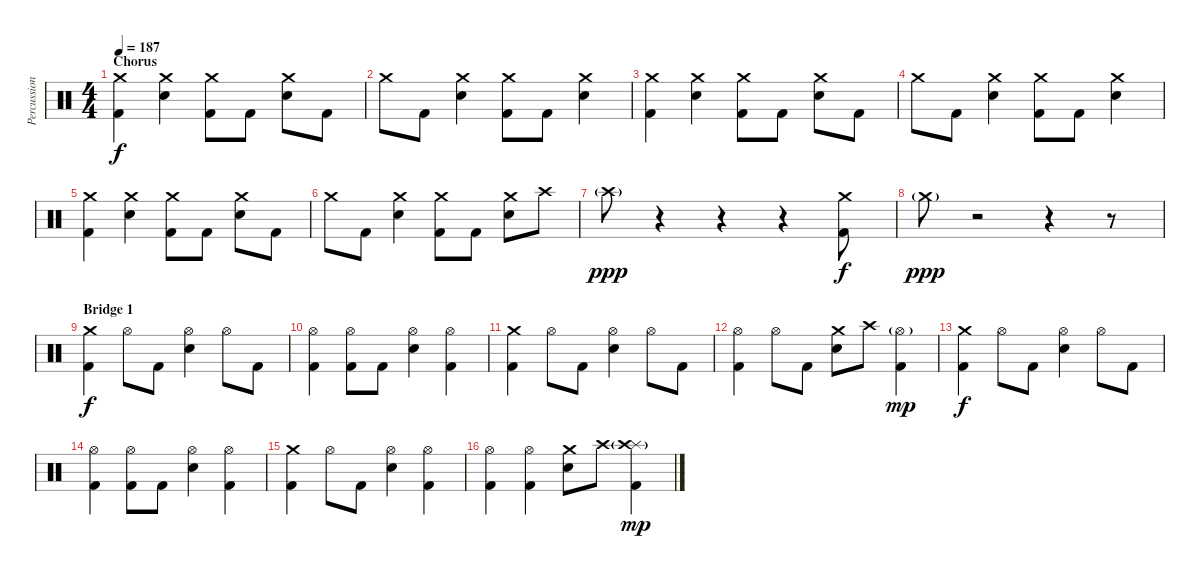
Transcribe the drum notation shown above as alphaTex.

\track ("Percussion" "Percussion") {instrument percussion}
\staff {score}
\articulation defaults
\ts (4 4)
\section ("" "Chorus")
\tempo 187
\clef neutral
\ks c
("Crash medium (hit)" "Kick (hit) 2").4{dy f} ("Crash medium (hit)" "Electric Snare (hit)").4 ("Crash medium (hit)" "Kick (hit) 2").8 "Kick (hit) 2".8 ("Crash medium (hit)" "Electric Snare (hit)").8 "Kick (hit) 2".8 |
"Crash medium (hit)".8 "Kick (hit) 2".8 ("Crash medium (hit)" "Electric Snare (hit)").4 ("Crash medium (hit)" "Kick (hit) 2").8 "Kick (hit) 2".8 ("Crash medium (hit)" "Electric Snare (hit)").4 |
("Crash medium (hit)" "Kick (hit) 2").4 ("Crash medium (hit)" "Electric Snare (hit)").4 ("Crash medium (hit)" "Kick (hit) 2").8 "Kick (hit) 2".8 ("Crash medium (hit)" "Electric Snare (hit)").8 "Kick (hit) 2".8 |
"Crash medium (hit)".8 "Kick (hit) 2".8 ("Crash medium (hit)" "Electric Snare (hit)").4 ("Crash medium (hit)" "Kick (hit) 2").8 "Kick (hit) 2".8 ("Crash medium (hit)" "Electric Snare (hit)").4 |
("Crash medium (hit)" "Kick (hit) 2").4 ("Crash medium (hit)" "Electric Snare (hit)").4 ("Crash medium (hit)" "Kick (hit) 2").8 "Kick (hit) 2".8 ("Crash medium (hit)" "Electric Snare (hit)").8 "Kick (hit) 2".8 |
"Crash medium (hit)".8 "Kick (hit) 2".8 ("Crash medium (hit)" "Electric Snare (hit)").4 ("Crash medium (hit)" "Kick (hit) 2").8 "Kick (hit) 2".8 ("Crash medium (hit)" "Electric Snare (hit)").8 "Crash high (hit)".8 |
"Crash high (hit)"{g}.8{dy ppp} r.4 r.4 r.4 ("Crash medium (hit)" "Kick (hit) 2").8{dy f} |
"Crash medium (hit)"{g}.8{dy ppp} r.2 r.4 r.8 |
\section ("" "Bridge 1")
("Crash medium (hit)" "Kick (hit) 2").4{dy f} "Hi-Hat (open)".8 "Kick (hit) 2".8 ("Hi-Hat (open)" "Electric Snare (hit)").4 "Hi-Hat (open)".8 "Kick (hit) 2".8 |
("Hi-Hat (open)" "Kick (hit) 2").4 ("Hi-Hat (open)" "Kick (hit) 2").8 "Kick (hit) 2".8 ("Hi-Hat (open)" "Electric Snare (hit)").4 ("Hi-Hat (open)" "Kick (hit) 2").4 |
("Crash medium (hit)" "Kick (hit) 2").4 "Hi-Hat (open)".8 "Kick (hit) 2".8 ("Hi-Hat (open)" "Electric Snare (hit)").4 "Hi-Hat (open)".8 "Kick (hit) 2".8 |
("Hi-Hat (open)" "Kick (hit) 2").4 "Hi-Hat (open)".8 "Kick (hit) 2".8 ("Crash medium (hit)" "Electric Snare (hit)").8 "Crash high (hit)".8 ("Hi-Hat (open)"{g} "Kick (hit) 2").4{dy mp} |
("Crash medium (hit)" "Kick (hit) 2").4{dy f} "Hi-Hat (open)".8 "Kick (hit) 2".8 ("Hi-Hat (open)" "Electric Snare (hit)").4 "Hi-Hat (open)".8 "Kick (hit) 2".8 |
("Hi-Hat (open)" "Kick (hit) 2").4 ("Hi-Hat (open)" "Kick (hit) 2").8 "Kick (hit) 2".8 ("Hi-Hat (open)" "Electric Snare (hit)").4 ("Hi-Hat (open)" "Kick (hit) 2").4 |
("Crash medium (hit)" "Kick (hit) 2").4 "Hi-Hat (open)".8 "Kick (hit) 2".8 ("Hi-Hat (open)" "Electric Snare (hit)").4 ("Hi-Hat (open)" "Kick (hit) 2").4 |
("Hi-Hat (open)" "Kick (hit) 2").4 ("Hi-Hat (open)" "Kick (hit) 2").4 ("Crash medium (hit)" "Electric Snare (hit)").8 "Crash high (hit)".8 ("Splash (hit)" "Crash high (hit)"{g} "Kick (hit) 2").4{dy mp}
